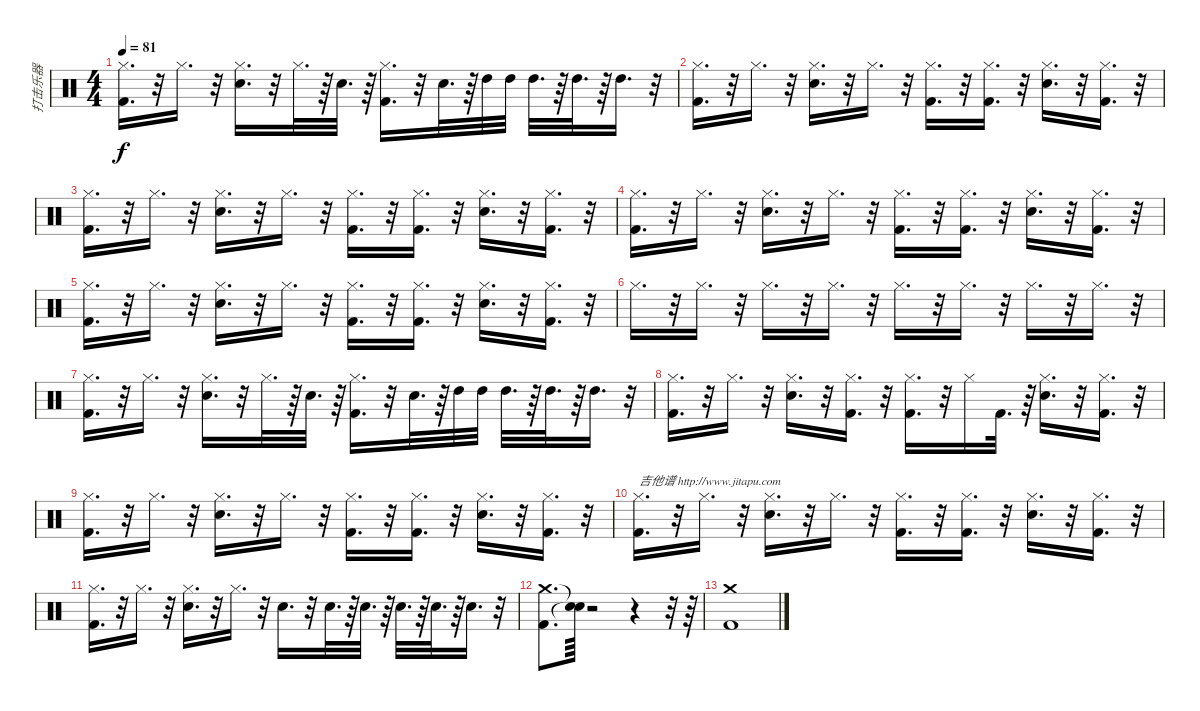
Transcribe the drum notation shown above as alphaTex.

\track ("打击乐器" "打击乐器") {instrument percussion}
\staff {score}
\articulation defaults
\ts (4 4)
\tempo 81
\clef neutral
\ks c
("Hi-Hat (closed)" "Kick (hit) 2").16{d dy f} r.32 "Hi-Hat (closed)".16{d} r.32 ("Hi-Hat (closed)" "Snare (hit) 2").16{d} r.32 "Hi-Hat (closed)".32{d} r.64 "Snare (hit) 2".32{d} r.64 ("Kick (hit) 2" "Hi-Hat (closed)").16{d} r.32 "Snare (hit) 2".32{d} r.64 "High Tom (hit)".32 "High Tom (hit)".32 "High Tom (hit)".32{d} r.64 "High Tom (hit)".32{d} r.64 "High Tom (hit)".16{d} r.32 |
("Hi-Hat (closed)" "Kick (hit) 2").16{d} r.32 "Hi-Hat (closed)".16{d} r.32 ("Snare (hit) 2" "Hi-Hat (closed)").16{d} r.32 "Hi-Hat (closed)".16{d} r.32 ("Hi-Hat (closed)" "Kick (hit) 2").16{d} r.32 ("Hi-Hat (closed)" "Kick (hit) 2").16{d} r.32 ("Snare (hit) 2" "Hi-Hat (closed)").16{d} r.32 ("Hi-Hat (closed)" "Kick (hit) 2").16{d} r.32 |
("Kick (hit) 2" "Hi-Hat (closed)").16{d} r.32 "Hi-Hat (closed)".16{d} r.32 ("Hi-Hat (closed)" "Snare (hit) 2").16{d} r.32 "Hi-Hat (closed)".16{d} r.32 ("Kick (hit) 2" "Hi-Hat (closed)").16{d} r.32 ("Hi-Hat (closed)" "Kick (hit) 2").16{d} r.32 ("Snare (hit) 2" "Hi-Hat (closed)").16{d} r.32 ("Kick (hit) 2" "Hi-Hat (closed)").16{d} r.32 |
("Kick (hit) 2" "Hi-Hat (closed)").16{d} r.32 "Hi-Hat (closed)".16{d} r.32 ("Snare (hit) 2" "Hi-Hat (closed)").16{d} r.32 "Hi-Hat (closed)".16{d} r.32 ("Kick (hit) 2" "Hi-Hat (closed)").16{d} r.32 ("Kick (hit) 2" "Hi-Hat (closed)").16{d} r.32 ("Hi-Hat (closed)" "Snare (hit) 2").16{d} r.32 ("Hi-Hat (closed)" "Kick (hit) 2").16{d} r.32 |
("Kick (hit) 2" "Hi-Hat (closed)").16{d} r.32 "Hi-Hat (closed)".16{d} r.32 ("Hi-Hat (closed)" "Snare (hit) 2").16{d} r.32 "Hi-Hat (closed)".16{d} r.32 ("Kick (hit) 2" "Hi-Hat (closed)").16{d} r.32 ("Kick (hit) 2" "Hi-Hat (closed)").16{d} r.32 ("Snare (hit) 2" "Hi-Hat (closed)").16{d} r.32 ("Kick (hit) 2" "Hi-Hat (closed)").16{d} r.32 |
"Hi-Hat (closed)".16{d} r.32 "Hi-Hat (closed)".16{d} r.32 "Hi-Hat (closed)".16{d} r.32 "Hi-Hat (closed)".16{d} r.32 "Hi-Hat (closed)".16{d} r.32 "Hi-Hat (closed)".16{d} r.32 "Hi-Hat (closed)".16{d} r.32 "Hi-Hat (closed)".16{d} r.32 |
("Kick (hit) 2" "Hi-Hat (closed)").16{d} r.32 "Hi-Hat (closed)".16{d} r.32 ("Hi-Hat (closed)" "Snare (hit) 2").16{d} r.32 "Hi-Hat (closed)".32{d} r.64 "Snare (hit) 2".32{d} r.64 ("Kick (hit) 2" "Hi-Hat (closed)").16{d} r.32 "Snare (hit) 2".32{d} r.64 "High Tom (hit)".32 "High Tom (hit)".32 "High Tom (hit)".32{d} r.64 "High Tom (hit)".32{d} r.64 "High Tom (hit)".16{d} r.32 |
("Kick (hit) 2" "Hi-Hat (closed)").16{d} r.32 "Hi-Hat (closed)".16{d} r.32 ("Snare (hit) 2" "Hi-Hat (closed)").16{d} r.32 ("Kick (hit) 2" "Hi-Hat (closed)").16{d} r.32 ("Hi-Hat (closed)" "Kick (hit) 2").16{d} r.32 "Hi-Hat (closed)".16 "Kick (hit) 2".32{d} r.64 ("Snare (hit) 2" "Hi-Hat (closed)").16{d} r.32 ("Hi-Hat (closed)" "Kick (hit) 2").16{d} r.32 |
("Hi-Hat (closed)" "Kick (hit) 2").16{d} r.32 "Hi-Hat (closed)".16{d} r.32 ("Snare (hit) 2" "Hi-Hat (closed)").16{d} r.32 "Hi-Hat (closed)".16{d} r.32 ("Kick (hit) 2" "Hi-Hat (closed)").16{d} r.32 ("Hi-Hat (closed)" "Kick (hit) 2").16{d} r.32 ("Hi-Hat (closed)" "Snare (hit) 2").16{d} r.32 ("Hi-Hat (closed)" "Kick (hit) 2").16{d} r.32 |
("Hi-Hat (closed)" "Kick (hit) 2").16{d txt "吉他谱 http://www.jitapu.com"} r.32 "Hi-Hat (closed)".16{d} r.32 ("Snare (hit) 2" "Hi-Hat (closed)").16{d} r.32 "Hi-Hat (closed)".16{d} r.32 ("Kick (hit) 2" "Hi-Hat (closed)").16{d} r.32 ("Kick (hit) 2" "Hi-Hat (closed)").16{d} r.32 ("Hi-Hat (closed)" "Snare (hit) 2").16{d} r.32 ("Kick (hit) 2" "Hi-Hat (closed)").16{d} r.32 |
("Hi-Hat (closed)" "Kick (hit) 2").16{d} r.32 "Hi-Hat (closed)".16{d} r.32 ("Snare (hit) 2" "Hi-Hat (closed)").16{d} r.32 "Hi-Hat (closed)".16{d} r.32 "Snare (hit) 2".16{d} r.32 "Snare (hit) 2".32{d} r.64 "Snare (hit) 2".32{d} r.64 "Snare (hit) 2".32{d} r.64 "Snare (hit) 2".32{d} r.64 "Snare (hit) 2".16{d} r.32 |
("Crash medium (hit)" "Kick (hit) 2").8{d} ("Snare (hit)"{t} "Snare (hit)"{t}).64 r.2 r.4 r.32 r.64 |
("Crash medium (hit)" "Kick (hit) 2").1
